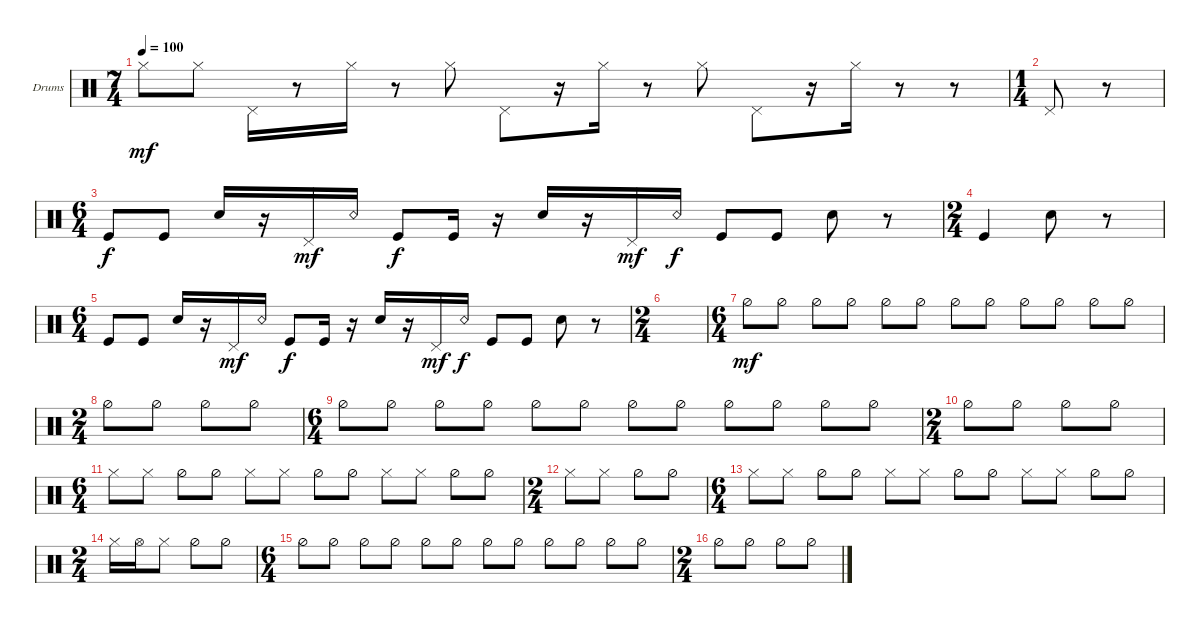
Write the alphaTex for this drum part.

\bracketExtendMode groupsimilarinstruments
\firstSystemTrackNameOrientation horizontal
\otherSystemsTrackNameOrientation horizontal
\track ("Drumkit" "Drums") {instrument percussion}
\staff {score}
\articulation defaults
\ts (7 4)
\tempo 100
\clef neutral
\ks c "Hi-Hat (closed)".8{dy mf} "Hi-Hat (closed)".8 "Pedal Hi-Hat (hit)".16
r.8 "Hi-Hat (closed)".16 r.8 "Hi-Hat (closed)".8 "Pedal Hi-Hat (hit)".8 r.16 "Hi-Hat (closed)".16 r.8 "Hi-Hat (closed)".8 "Pedal Hi-Hat (hit)".8 r.16 "Hi-Hat (closed)".16 r.8 r.8 |
\ts (1 4)
"Pedal Hi-Hat (hit)".8 r.8 |
\ts (6 4)
"Kick (hit)".8{dy f} "Kick (hit)".8 "Snare (hit) 2".16 r.16 "Pedal Hi-Hat (hit)".16{dy mf} "Snare (rim shot)".16 "Kick (hit)".8{dy f} "Kick (hit)".16 r.16 "Snare (hit) 2".16 r.16 "Pedal Hi-Hat (hit)".16{dy mf} "Snare (rim shot)".16{dy f} "Kick (hit)".8 "Kick (hit)".8 "Snare (hit) 2".8 r.8 |
\ts (2 4)
"Kick (hit)".4 "Snare (hit) 2".8 r.8 |
\ts (6 4)
"Kick (hit)".8 "Kick (hit)".8 "Snare (hit) 2".16 r.16 "Pedal Hi-Hat (hit)".16{dy mf} "Snare (rim shot)".16 "Kick (hit)".8{dy f} "Kick (hit)".16 r.16 "Snare (hit) 2".16 r.16 "Pedal Hi-Hat (hit)".16{dy mf} "Snare (rim shot)".16{dy f} "Kick (hit)".8 "Kick (hit)".8 "Snare (hit) 2".8 r.8 |
\ts (2 4)
|
\ts (6 4)
"Hi-Hat (half)".8{dy mf} "Hi-Hat (half)".8 "Hi-Hat (half)".8 "Hi-Hat (half)".8 "Hi-Hat (half)".8 "Hi-Hat (half)".8 "Hi-Hat (half)".8 "Hi-Hat (half)".8 "Hi-Hat (half)".8 "Hi-Hat (half)".8 "Hi-Hat (half)".8 "Hi-Hat (half)".8 |
\ts (2 4)
"Hi-Hat (half)".8 "Hi-Hat (half)".8 "Hi-Hat (half)".8 "Hi-Hat (half)".8 |
\ts (6 4)
"Hi-Hat (half)".8 "Hi-Hat (half)".8 "Hi-Hat (half)".8 "Hi-Hat (half)".8 "Hi-Hat (half)".8 "Hi-Hat (half)".8 "Hi-Hat (half)".8 "Hi-Hat (half)".8 "Hi-Hat (half)".8 "Hi-Hat (half)".8 "Hi-Hat (half)".8 "Hi-Hat (half)".8 |
\ts (2 4)
"Hi-Hat (half)".8 "Hi-Hat (half)".8 "Hi-Hat (half)".8 "Hi-Hat (half)".8 |
\ts (6 4)
"Hi-Hat (closed)".8 "Hi-Hat (closed)".8 "Hi-Hat (half)".8 "Hi-Hat (half)".8 "Hi-Hat (closed)".8 "Hi-Hat (closed)".8 "Hi-Hat (half)".8 "Hi-Hat (half)".8 "Hi-Hat (closed)".8 "Hi-Hat (closed)".8 "Hi-Hat (half)".8 "Hi-Hat (half)".8 |
\ts (2 4)
"Hi-Hat (closed)".8 "Hi-Hat (closed)".8 "Hi-Hat (half)".8 "Hi-Hat (half)".8 |
\ts (6 4)
"Hi-Hat (closed)".8 "Hi-Hat (closed)".8 "Hi-Hat (half)".8 "Hi-Hat (half)".8 "Hi-Hat (closed)".8 "Hi-Hat (closed)".8 "Hi-Hat (half)".8 "Hi-Hat (half)".8 "Hi-Hat (closed)".8 "Hi-Hat (closed)".8 "Hi-Hat (half)".8 "Hi-Hat (half)".8 |
\ts (2 4)
"Hi-Hat (closed)".16 "Hi-Hat (open)".16 "Hi-Hat (closed)".8 "Hi-Hat (half)".8 "Hi-Hat (half)".8 |
\ts (6 4)
"Hi-Hat (half)".8 "Hi-Hat (half)".8 "Hi-Hat (half)".8 "Hi-Hat (half)".8 "Hi-Hat (half)".8 "Hi-Hat (half)".8 "Hi-Hat (half)".8 "Hi-Hat (half)".8 "Hi-Hat (half)".8 "Hi-Hat (half)".8 "Hi-Hat (half)".8 "Hi-Hat (half)".8 |
\ts (2 4)
"Hi-Hat (half)".8 "Hi-Hat (half)".8 "Hi-Hat (half)".8 "Hi-Hat (half)".8
